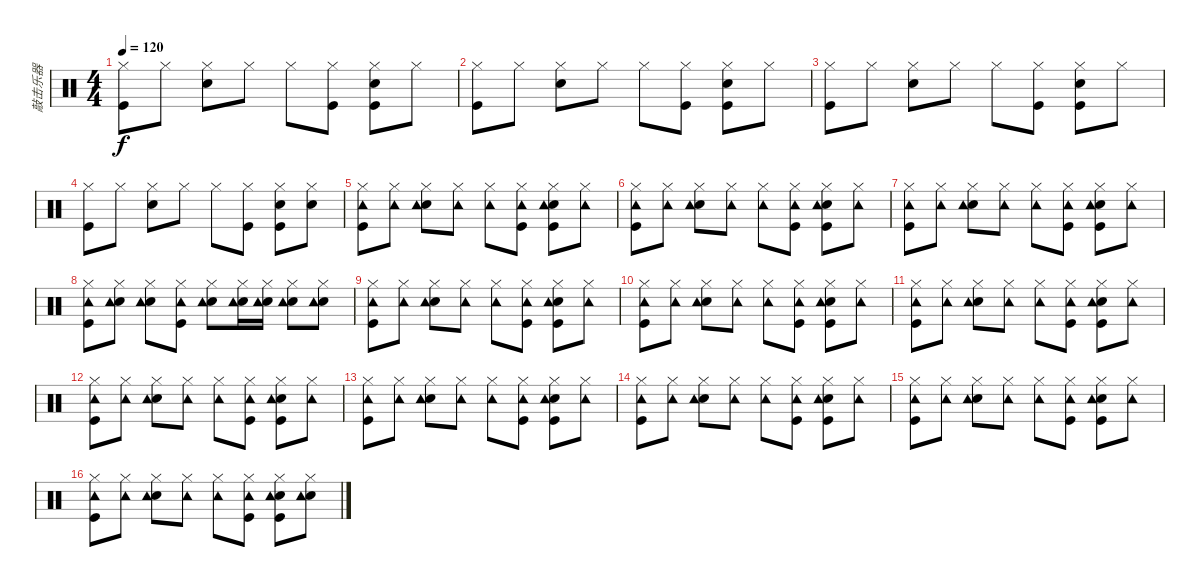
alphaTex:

\track ("敲击乐器" "敲击乐器") {instrument percussion}
\staff {score}
\articulation defaults
\ts (4 4)
\tempo 120
\clef neutral
\ks c
("Hi-Hat (closed)" "Kick (hit)").8{dy f} "Hi-Hat (closed)".8 ("Hi-Hat (closed)" "Snare (hit) 2").8 "Hi-Hat (closed)".8 "Hi-Hat (closed)".8 ("Hi-Hat (closed)" "Kick (hit)").8 ("Hi-Hat (closed)" "Snare (hit) 2" "Kick (hit)").8 "Hi-Hat (closed)".8 |
("Hi-Hat (closed)" "Kick (hit)").8 "Hi-Hat (closed)".8 ("Hi-Hat (closed)" "Snare (hit) 2").8 "Hi-Hat (closed)".8 "Hi-Hat (closed)".8 ("Hi-Hat (closed)" "Kick (hit)").8 ("Hi-Hat (closed)" "Snare (hit) 2" "Kick (hit)").8 "Hi-Hat (closed)".8 |
("Hi-Hat (closed)" "Kick (hit)").8 "Hi-Hat (closed)".8 ("Hi-Hat (closed)" "Snare (hit) 2").8 "Hi-Hat (closed)".8 "Hi-Hat (closed)".8 ("Hi-Hat (closed)" "Kick (hit)").8 ("Hi-Hat (closed)" "Snare (hit) 2" "Kick (hit)").8 "Hi-Hat (closed)".8 |
("Hi-Hat (closed)" "Kick (hit)").8 "Hi-Hat (closed)".8 ("Hi-Hat (closed)" "Snare (hit) 2").8 "Hi-Hat (closed)".8 "Hi-Hat (closed)".8 ("Hi-Hat (closed)" "Kick (hit)").8 ("Hi-Hat (closed)" "Snare (hit) 2" "Kick (hit)").8 ("Hi-Hat (closed)" "Snare (hit) 2").8 |
("Hi-Hat (closed)" "Kick (hit)" "Tambourine (hit)").8 ("Hi-Hat (closed)" "Tambourine (hit)").8 ("Hi-Hat (closed)" "Snare (hit) 2" "Tambourine (hit)").8 ("Hi-Hat (closed)" "Tambourine (hit)").8 ("Hi-Hat (closed)" "Tambourine (hit)").8 ("Hi-Hat (closed)" "Kick (hit)" "Tambourine (hit)").8 ("Hi-Hat (closed)" "Snare (hit) 2" "Kick (hit)" "Tambourine (hit)").8 ("Hi-Hat (closed)" "Tambourine (hit)").8 |
("Hi-Hat (closed)" "Kick (hit)" "Tambourine (hit)").8 ("Hi-Hat (closed)" "Tambourine (hit)").8 ("Hi-Hat (closed)" "Snare (hit) 2" "Tambourine (hit)").8 ("Hi-Hat (closed)" "Tambourine (hit)").8 ("Hi-Hat (closed)" "Tambourine (hit)").8 ("Hi-Hat (closed)" "Kick (hit)" "Tambourine (hit)").8 ("Hi-Hat (closed)" "Snare (hit) 2" "Kick (hit)" "Tambourine (hit)").8 ("Hi-Hat (closed)" "Tambourine (hit)").8 |
("Hi-Hat (closed)" "Kick (hit)" "Tambourine (hit)").8 ("Hi-Hat (closed)" "Tambourine (hit)").8 ("Hi-Hat (closed)" "Snare (hit) 2" "Tambourine (hit)").8 ("Hi-Hat (closed)" "Tambourine (hit)").8 ("Hi-Hat (closed)" "Tambourine (hit)").8 ("Hi-Hat (closed)" "Kick (hit)" "Tambourine (hit)").8 ("Hi-Hat (closed)" "Snare (hit) 2" "Kick (hit)" "Tambourine (hit)").8 ("Hi-Hat (closed)" "Tambourine (hit)").8 |
("Hi-Hat (closed)" "Kick (hit)" "Tambourine (hit)").8 ("Hi-Hat (closed)" "Snare (hit) 2" "Tambourine (hit)").8 ("Hi-Hat (closed)" "Snare (hit) 2" "Tambourine (hit)").8 ("Hi-Hat (closed)" "Kick (hit)" "Tambourine (hit)").8 ("Hi-Hat (closed)" "Snare (hit) 2" "Tambourine (hit)").8 ("Hi-Hat (closed)" "Snare (hit) 2" "Tambourine (hit)").16 ("Hi-Hat (closed)" "Snare (hit) 2" "Tambourine (hit)").16 ("Hi-Hat (closed)" "Snare (hit) 2" "Tambourine (hit)").8 ("Hi-Hat (closed)" "Snare (hit) 2" "Tambourine (hit)").8 |
("Hi-Hat (closed)" "Kick (hit)" "Tambourine (hit)").8 ("Hi-Hat (closed)" "Tambourine (hit)").8 ("Hi-Hat (closed)" "Snare (hit) 2" "Tambourine (hit)").8 ("Hi-Hat (closed)" "Tambourine (hit)").8 ("Hi-Hat (closed)" "Tambourine (hit)").8 ("Hi-Hat (closed)" "Kick (hit)" "Tambourine (hit)").8 ("Hi-Hat (closed)" "Snare (hit) 2" "Kick (hit)" "Tambourine (hit)").8 ("Hi-Hat (closed)" "Tambourine (hit)").8 |
("Hi-Hat (closed)" "Kick (hit)" "Tambourine (hit)").8 ("Hi-Hat (closed)" "Tambourine (hit)").8 ("Hi-Hat (closed)" "Snare (hit) 2" "Tambourine (hit)").8 ("Hi-Hat (closed)" "Tambourine (hit)").8 ("Hi-Hat (closed)" "Tambourine (hit)").8 ("Hi-Hat (closed)" "Kick (hit)" "Tambourine (hit)").8 ("Hi-Hat (closed)" "Snare (hit) 2" "Kick (hit)" "Tambourine (hit)").8 ("Hi-Hat (closed)" "Tambourine (hit)").8 |
("Hi-Hat (closed)" "Kick (hit)" "Tambourine (hit)").8 ("Hi-Hat (closed)" "Tambourine (hit)").8 ("Hi-Hat (closed)" "Snare (hit) 2" "Tambourine (hit)").8 ("Hi-Hat (closed)" "Tambourine (hit)").8 ("Hi-Hat (closed)" "Tambourine (hit)").8 ("Hi-Hat (closed)" "Kick (hit)" "Tambourine (hit)").8 ("Hi-Hat (closed)" "Snare (hit) 2" "Kick (hit)" "Tambourine (hit)").8 ("Hi-Hat (closed)" "Tambourine (hit)").8 |
("Hi-Hat (closed)" "Kick (hit)" "Tambourine (hit)").8 ("Hi-Hat (closed)" "Tambourine (hit)").8 ("Hi-Hat (closed)" "Snare (hit) 2" "Tambourine (hit)").8 ("Hi-Hat (closed)" "Tambourine (hit)").8 ("Hi-Hat (closed)" "Tambourine (hit)").8 ("Hi-Hat (closed)" "Kick (hit)" "Tambourine (hit)").8 ("Hi-Hat (closed)" "Snare (hit) 2" "Kick (hit)" "Tambourine (hit)").8 ("Hi-Hat (closed)" "Tambourine (hit)").8 |
("Hi-Hat (closed)" "Kick (hit)" "Tambourine (hit)").8 ("Hi-Hat (closed)" "Tambourine (hit)").8 ("Hi-Hat (closed)" "Snare (hit) 2" "Tambourine (hit)").8 ("Hi-Hat (closed)" "Tambourine (hit)").8 ("Hi-Hat (closed)" "Tambourine (hit)").8 ("Hi-Hat (closed)" "Kick (hit)" "Tambourine (hit)").8 ("Hi-Hat (closed)" "Snare (hit) 2" "Kick (hit)" "Tambourine (hit)").8 ("Hi-Hat (closed)" "Tambourine (hit)").8 |
("Hi-Hat (closed)" "Kick (hit)" "Tambourine (hit)").8 ("Hi-Hat (closed)" "Tambourine (hit)").8 ("Hi-Hat (closed)" "Snare (hit) 2" "Tambourine (hit)").8 ("Hi-Hat (closed)" "Tambourine (hit)").8 ("Hi-Hat (closed)" "Tambourine (hit)").8 ("Hi-Hat (closed)" "Kick (hit)" "Tambourine (hit)").8 ("Hi-Hat (closed)" "Snare (hit) 2" "Kick (hit)" "Tambourine (hit)").8 ("Hi-Hat (closed)" "Tambourine (hit)").8 |
("Hi-Hat (closed)" "Kick (hit)" "Tambourine (hit)").8 ("Hi-Hat (closed)" "Tambourine (hit)").8 ("Hi-Hat (closed)" "Snare (hit) 2" "Tambourine (hit)").8 ("Hi-Hat (closed)" "Tambourine (hit)").8 ("Hi-Hat (closed)" "Tambourine (hit)").8 ("Hi-Hat (closed)" "Kick (hit)" "Tambourine (hit)").8 ("Hi-Hat (closed)" "Snare (hit) 2" "Kick (hit)" "Tambourine (hit)").8 ("Hi-Hat (closed)" "Tambourine (hit)").8 |
("Hi-Hat (closed)" "Kick (hit)" "Tambourine (hit)").8 ("Hi-Hat (closed)" "Tambourine (hit)").8 ("Hi-Hat (closed)" "Snare (hit) 2" "Tambourine (hit)").8 ("Hi-Hat (closed)" "Tambourine (hit)").8 ("Hi-Hat (closed)" "Tambourine (hit)").8 ("Hi-Hat (closed)" "Kick (hit)" "Tambourine (hit)").8 ("Hi-Hat (closed)" "Snare (hit) 2" "Kick (hit)" "Tambourine (hit)").8 ("Hi-Hat (closed)" "Snare (hit) 2" "Tambourine (hit)").8
